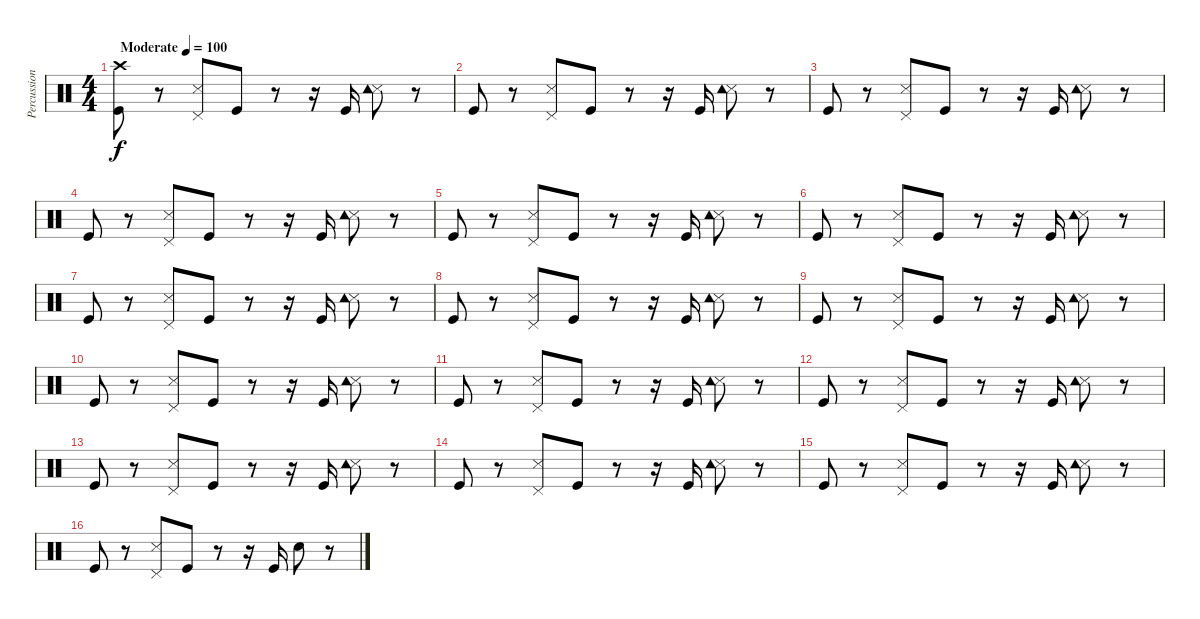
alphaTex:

\track ("Percussions" "Percussion") {instrument percussion}
\staff {score}
\articulation defaults
\ts (4 4)
\tempo (100 "Moderate")
\clef neutral
\ks c
("Crash high (hit)" "Kick (hit)").8{dy f} r.8 ("Pedal Hi-Hat (hit)" "Snare (side stick) 3").8 "Kick (hit)".8 r.8 r.16 "Kick (hit)".16 ("Snare (side stick) 3" "Tambourine (hit)").8 r.8 |
"Kick (hit)".8 r.8 ("Pedal Hi-Hat (hit)" "Snare (side stick) 3").8 "Kick (hit)".8 r.8 r.16 "Kick (hit)".16 ("Snare (side stick) 3" "Tambourine (hit)").8 r.8 |
"Kick (hit)".8 r.8 ("Pedal Hi-Hat (hit)" "Snare (side stick) 3").8 "Kick (hit)".8 r.8 r.16 "Kick (hit)".16 ("Snare (side stick) 3" "Tambourine (hit)").8 r.8 |
"Kick (hit)".8 r.8 ("Pedal Hi-Hat (hit)" "Snare (side stick) 3").8 "Kick (hit)".8 r.8 r.16 "Kick (hit)".16 ("Snare (side stick) 3" "Tambourine (hit)").8 r.8 |
"Kick (hit)".8 r.8 ("Pedal Hi-Hat (hit)" "Snare (side stick) 3").8 "Kick (hit)".8 r.8 r.16 "Kick (hit)".16 ("Snare (side stick) 3" "Tambourine (hit)").8 r.8 |
"Kick (hit)".8 r.8 ("Pedal Hi-Hat (hit)" "Snare (side stick) 3").8 "Kick (hit)".8 r.8 r.16 "Kick (hit)".16 ("Snare (side stick) 3" "Tambourine (hit)").8 r.8 |
"Kick (hit)".8 r.8 ("Pedal Hi-Hat (hit)" "Snare (side stick) 3").8 "Kick (hit)".8 r.8 r.16 "Kick (hit)".16 ("Snare (side stick) 3" "Tambourine (hit)").8 r.8 |
"Kick (hit)".8 r.8 ("Pedal Hi-Hat (hit)" "Snare (side stick) 3").8 "Kick (hit)".8 r.8 r.16 "Kick (hit)".16 ("Snare (side stick) 3" "Tambourine (hit)").8 r.8 |
"Kick (hit)".8 r.8 ("Pedal Hi-Hat (hit)" "Snare (side stick) 3").8 "Kick (hit)".8 r.8 r.16 "Kick (hit)".16 ("Snare (side stick) 3" "Tambourine (hit)").8 r.8 |
"Kick (hit)".8 r.8 ("Pedal Hi-Hat (hit)" "Snare (side stick) 3").8 "Kick (hit)".8 r.8 r.16 "Kick (hit)".16 ("Snare (side stick) 3" "Tambourine (hit)").8 r.8 |
"Kick (hit)".8 r.8 ("Pedal Hi-Hat (hit)" "Snare (side stick) 3").8 "Kick (hit)".8 r.8 r.16 "Kick (hit)".16 ("Snare (side stick) 3" "Tambourine (hit)").8 r.8 |
"Kick (hit)".8 r.8 ("Pedal Hi-Hat (hit)" "Snare (side stick) 3").8 "Kick (hit)".8 r.8 r.16 "Kick (hit)".16 ("Snare (side stick) 3" "Tambourine (hit)").8 r.8 |
"Kick (hit)".8 r.8 ("Pedal Hi-Hat (hit)" "Snare (side stick) 3").8 "Kick (hit)".8 r.8 r.16 "Kick (hit)".16 ("Snare (side stick) 3" "Tambourine (hit)").8 r.8 |
"Kick (hit)".8 r.8 ("Pedal Hi-Hat (hit)" "Snare (side stick) 3").8 "Kick (hit)".8 r.8 r.16 "Kick (hit)".16 ("Snare (side stick) 3" "Tambourine (hit)").8 r.8 |
"Kick (hit)".8 r.8 ("Pedal Hi-Hat (hit)" "Snare (side stick) 3").8 "Kick (hit)".8 r.8 r.16 "Kick (hit)".16 ("Snare (side stick) 3" "Tambourine (hit)").8 r.8 |
"Kick (hit)".8 r.8 ("Pedal Hi-Hat (hit)" "Snare (side stick) 3").8 "Kick (hit)".8 r.8 r.16 "Kick (hit)".16 "Snare (hit) 2".8 r.8
